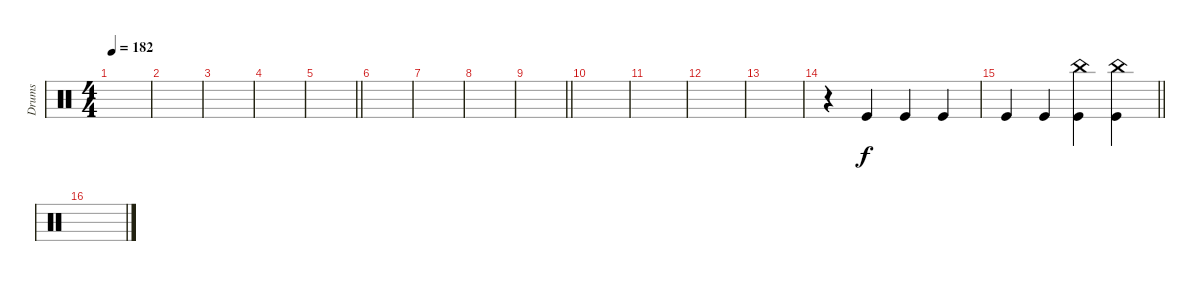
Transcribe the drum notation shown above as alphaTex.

\track ("Drums" "Drums") {instrument percussion}
\staff
\articulation defaults
\ts (4 4)
\tempo 182
\clef neutral
\ks c
|
|
|
|
\barLineRight lightlight
|
|
|
|
\barLineRight lightlight
|
|
|
|
|
r.4 "Kick (hit)".4 "Kick (hit)".4 "Kick (hit)".4 |
\barLineRight lightlight "Kick (hit)".4 "Kick (hit)".4
("China (hit)" "Kick (hit)").4 ("China (hit)" "Kick (hit)").4 |
\section ("" "")
